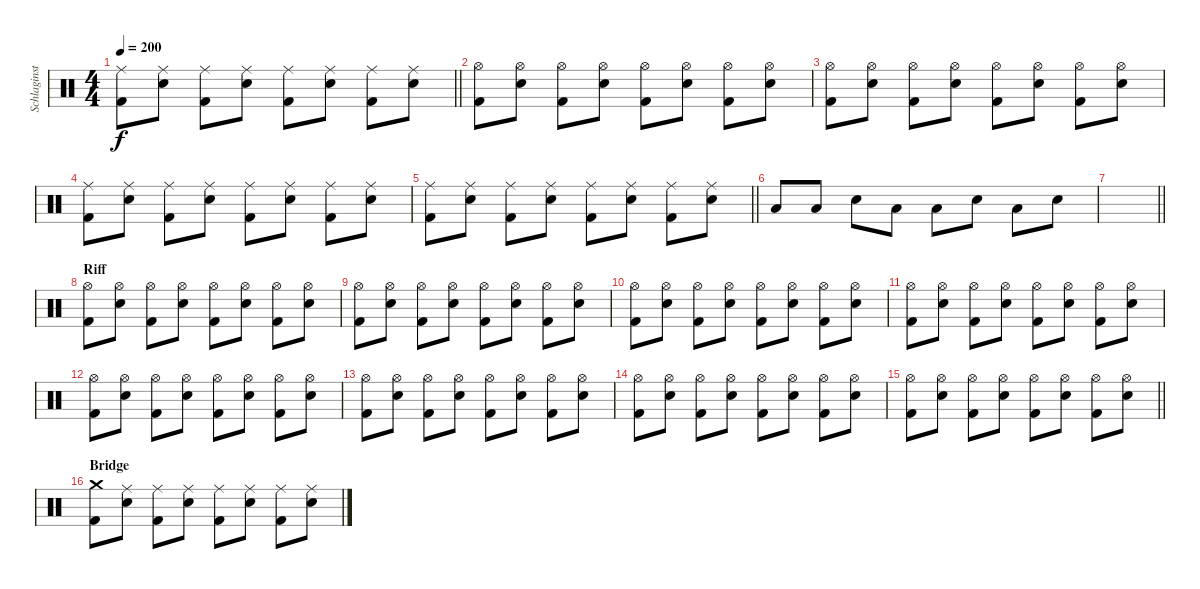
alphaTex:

\track ("Schlaginstrumente - Auswahl" "Schlaginst") {instrument percussion}
\staff {score}
\articulation defaults
\ts (4 4)
\tempo 200
\clef neutral
\barLineRight lightlight
\ks c
("Ride (middle)" "Kick (hit) 2").8{dy f} ("Ride (middle)" "Electric Snare (hit)").8 ("Ride (middle)" "Kick (hit) 2").8 ("Ride (middle)" "Electric Snare (hit)").8 ("Ride (middle)" "Kick (hit) 2").8 ("Ride (middle)" "Electric Snare (hit)").8 ("Ride (middle)" "Kick (hit) 2").8 ("Ride (middle)" "Electric Snare (hit)").8 |
("Hi-Hat (open)" "Kick (hit) 2").8 ("Hi-Hat (open)" "Electric Snare (hit)").8 ("Hi-Hat (open)" "Kick (hit) 2").8 ("Hi-Hat (open)" "Electric Snare (hit)").8 ("Hi-Hat (open)" "Kick (hit) 2").8 ("Hi-Hat (open)" "Electric Snare (hit)").8 ("Hi-Hat (open)" "Kick (hit) 2").8 ("Hi-Hat (open)" "Electric Snare (hit)").8 |
("Hi-Hat (open)" "Kick (hit) 2").8 ("Hi-Hat (open)" "Electric Snare (hit)").8 ("Hi-Hat (open)" "Kick (hit) 2").8 ("Hi-Hat (open)" "Electric Snare (hit)").8 ("Hi-Hat (open)" "Kick (hit) 2").8 ("Hi-Hat (open)" "Electric Snare (hit)").8 ("Hi-Hat (open)" "Kick (hit) 2").8 ("Hi-Hat (open)" "Electric Snare (hit)").8 |
("Ride (middle)" "Kick (hit) 2").8 ("Ride (middle)" "Electric Snare (hit)").8 ("Ride (middle)" "Kick (hit) 2").8 ("Ride (middle)" "Electric Snare (hit)").8 ("Ride (middle)" "Kick (hit) 2").8 ("Ride (middle)" "Electric Snare (hit)").8 ("Ride (middle)" "Kick (hit) 2").8 ("Ride (middle)" "Electric Snare (hit)").8 |
\barLineRight lightlight
("Ride (middle)" "Kick (hit) 2").8 ("Ride (middle)" "Electric Snare (hit)").8 ("Ride (middle)" "Kick (hit) 2").8 ("Ride (middle)" "Electric Snare (hit)").8 ("Ride (middle)" "Kick (hit) 2").8 ("Ride (middle)" "Electric Snare (hit)").8 ("Ride (middle)" "Kick (hit) 2").8 ("Ride (middle)" "Electric Snare (hit)").8 |
"Low Tom (hit)".8 "Low Tom (hit)".8 "Electric Snare (hit)".8 "Low Tom (hit)".8 "Low Tom (hit)".8 "Electric Snare (hit)".8 "Low Tom (hit)".8 "Electric Snare (hit)".8 |
\barLineRight lightlight
|
\section ("" "Riff")
("Hi-Hat (open)" "Kick (hit) 2").8 ("Hi-Hat (open)" "Electric Snare (hit)").8 ("Hi-Hat (open)" "Kick (hit) 2").8 ("Hi-Hat (open)" "Electric Snare (hit)").8 ("Hi-Hat (open)" "Kick (hit) 2").8 ("Hi-Hat (open)" "Electric Snare (hit)").8 ("Hi-Hat (open)" "Kick (hit) 2").8 ("Hi-Hat (open)" "Electric Snare (hit)").8 |
("Hi-Hat (open)" "Kick (hit) 2").8 ("Hi-Hat (open)" "Electric Snare (hit)").8 ("Hi-Hat (open)" "Kick (hit) 2").8 ("Hi-Hat (open)" "Electric Snare (hit)").8 ("Hi-Hat (open)" "Kick (hit) 2").8 ("Hi-Hat (open)" "Electric Snare (hit)").8 ("Hi-Hat (open)" "Kick (hit) 2").8 ("Hi-Hat (open)" "Electric Snare (hit)").8 |
("Hi-Hat (open)" "Kick (hit) 2").8 ("Hi-Hat (open)" "Electric Snare (hit)").8 ("Hi-Hat (open)" "Kick (hit) 2").8 ("Hi-Hat (open)" "Electric Snare (hit)").8 ("Hi-Hat (open)" "Kick (hit) 2").8 ("Hi-Hat (open)" "Electric Snare (hit)").8 ("Hi-Hat (open)" "Kick (hit) 2").8 ("Hi-Hat (open)" "Electric Snare (hit)").8 |
("Hi-Hat (open)" "Kick (hit) 2").8 ("Hi-Hat (open)" "Electric Snare (hit)").8 ("Hi-Hat (open)" "Kick (hit) 2").8 ("Hi-Hat (open)" "Electric Snare (hit)").8 ("Hi-Hat (open)" "Kick (hit) 2").8 ("Hi-Hat (open)" "Electric Snare (hit)").8 ("Hi-Hat (open)" "Kick (hit) 2").8 ("Hi-Hat (open)" "Electric Snare (hit)").8 |
("Hi-Hat (open)" "Kick (hit) 2").8 ("Hi-Hat (open)" "Electric Snare (hit)").8 ("Hi-Hat (open)" "Kick (hit) 2").8 ("Hi-Hat (open)" "Electric Snare (hit)").8 ("Hi-Hat (open)" "Kick (hit) 2").8 ("Hi-Hat (open)" "Electric Snare (hit)").8 ("Hi-Hat (open)" "Kick (hit) 2").8 ("Hi-Hat (open)" "Electric Snare (hit)").8 |
("Hi-Hat (open)" "Kick (hit) 2").8 ("Hi-Hat (open)" "Electric Snare (hit)").8 ("Hi-Hat (open)" "Kick (hit) 2").8 ("Hi-Hat (open)" "Electric Snare (hit)").8 ("Hi-Hat (open)" "Kick (hit) 2").8 ("Hi-Hat (open)" "Electric Snare (hit)").8 ("Hi-Hat (open)" "Kick (hit) 2").8 ("Hi-Hat (open)" "Electric Snare (hit)").8 |
("Hi-Hat (open)" "Kick (hit) 2").8 ("Hi-Hat (open)" "Electric Snare (hit)").8 ("Hi-Hat (open)" "Kick (hit) 2").8 ("Hi-Hat (open)" "Electric Snare (hit)").8 ("Hi-Hat (open)" "Kick (hit) 2").8 ("Hi-Hat (open)" "Electric Snare (hit)").8 ("Hi-Hat (open)" "Kick (hit) 2").8 ("Hi-Hat (open)" "Electric Snare (hit)").8 |
\barLineRight lightlight
("Hi-Hat (open)" "Kick (hit) 2").8 ("Hi-Hat (open)" "Electric Snare (hit)").8 ("Hi-Hat (open)" "Kick (hit) 2").8 ("Hi-Hat (open)" "Electric Snare (hit)").8 ("Hi-Hat (open)" "Kick (hit) 2").8 ("Hi-Hat (open)" "Electric Snare (hit)").8 ("Hi-Hat (open)" "Kick (hit) 2").8 ("Hi-Hat (open)" "Electric Snare (hit)").8 |
\section ("" "Bridge")
("Crash medium (hit)" "Kick (hit) 2").8 ("Ride (middle)" "Electric Snare (hit)").8 ("Ride (middle)" "Kick (hit) 2").8 ("Ride (middle)" "Electric Snare (hit)").8 ("Ride (middle)" "Kick (hit) 2").8 ("Ride (middle)" "Electric Snare (hit)").8 ("Ride (middle)" "Kick (hit) 2").8 ("Ride (middle)" "Electric Snare (hit)").8
